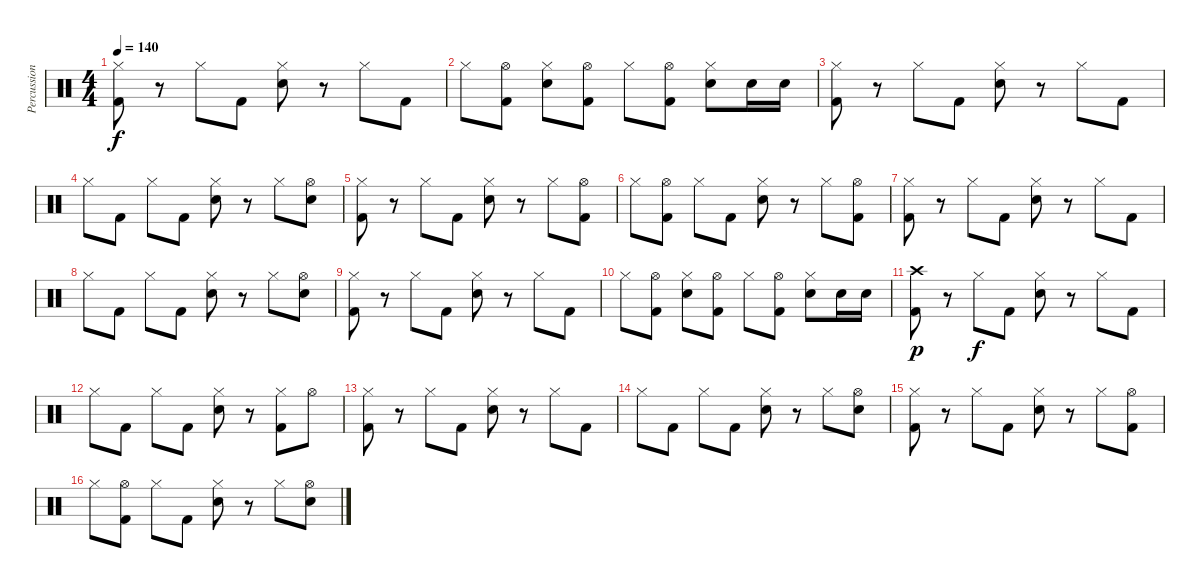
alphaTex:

\track ("Percussion" "Percussion") {instrument percussion}
\staff {score}
\articulation defaults
\ts (4 4)
\tempo 140
\clef neutral
\ks c
("Hi-Hat (closed)" "Kick (hit) 2").8{dy f} r.8 "Hi-Hat (closed)".8 "Kick (hit) 2".8 ("Hi-Hat (closed)" "Snare (hit) 2").8 r.8 "Hi-Hat (closed)".8 "Kick (hit) 2".8 |
"Hi-Hat (closed)".8 ("Hi-Hat (open)" "Kick (hit) 2").8 ("Hi-Hat (closed)" "Snare (hit) 2").8 ("Hi-Hat (open)" "Kick (hit) 2").8 "Hi-Hat (closed)".8 ("Hi-Hat (open)" "Kick (hit) 2").8 ("Hi-Hat (closed)" "Snare (hit) 2").8 "Snare (hit) 2".16 "Snare (hit) 2".16 |
("Hi-Hat (closed)" "Kick (hit) 2").8 r.8 "Hi-Hat (closed)".8 "Kick (hit) 2".8 ("Hi-Hat (closed)" "Snare (hit) 2").8 r.8 "Hi-Hat (closed)".8 "Kick (hit) 2".8 |
"Hi-Hat (closed)".8 "Kick (hit) 2".8 "Hi-Hat (closed)".8 "Kick (hit) 2".8 ("Hi-Hat (closed)" "Snare (hit) 2").8 r.8 "Hi-Hat (closed)".8 ("Hi-Hat (open)" "Snare (hit) 2").8 |
("Hi-Hat (closed)" "Kick (hit) 2").8 r.8 "Hi-Hat (closed)".8 "Kick (hit) 2".8 ("Hi-Hat (closed)" "Snare (hit) 2").8 r.8 "Hi-Hat (closed)".8 ("Hi-Hat (open)" "Kick (hit) 2").8 |
"Hi-Hat (closed)".8 ("Hi-Hat (open)" "Kick (hit) 2").8 "Hi-Hat (closed)".8 "Kick (hit) 2".8 ("Hi-Hat (closed)" "Snare (hit) 2").8 r.8 "Hi-Hat (closed)".8 ("Hi-Hat (open)" "Kick (hit) 2").8 |
("Hi-Hat (closed)" "Kick (hit) 2").8 r.8 "Hi-Hat (closed)".8 "Kick (hit) 2".8 ("Hi-Hat (closed)" "Snare (hit) 2").8 r.8 "Hi-Hat (closed)".8 "Kick (hit) 2".8 |
"Hi-Hat (closed)".8 "Kick (hit) 2".8 "Hi-Hat (closed)".8 "Kick (hit) 2".8 ("Hi-Hat (closed)" "Snare (hit) 2").8 r.8 "Hi-Hat (closed)".8 ("Hi-Hat (open)" "Snare (hit) 2").8 |
("Hi-Hat (closed)" "Kick (hit) 2").8 r.8 "Hi-Hat (closed)".8 "Kick (hit) 2".8 ("Hi-Hat (closed)" "Snare (hit) 2").8 r.8 "Hi-Hat (closed)".8 "Kick (hit) 2".8 |
"Hi-Hat (closed)".8 ("Hi-Hat (open)" "Kick (hit) 2").8 ("Hi-Hat (closed)" "Snare (hit) 2").8 ("Hi-Hat (open)" "Kick (hit) 2").8 "Hi-Hat (closed)".8 ("Hi-Hat (open)" "Kick (hit) 2").8 ("Hi-Hat (closed)" "Snare (hit) 2").8 "Snare (hit) 2".16 "Snare (hit) 2".16 |
("Crash high (hit)" "Kick (hit) 2").8{dy p} r.8 "Hi-Hat (closed)".8{dy f} "Kick (hit) 2".8 ("Hi-Hat (closed)" "Snare (hit) 2").8 r.8 "Hi-Hat (closed)".8 "Kick (hit) 2".8 |
"Hi-Hat (closed)".8 "Kick (hit) 2".8 "Hi-Hat (closed)".8 "Kick (hit) 2".8 ("Hi-Hat (closed)" "Snare (hit) 2").8 r.8 ("Hi-Hat (closed)" "Kick (hit) 2").8 "Hi-Hat (open)".8 |
("Hi-Hat (closed)" "Kick (hit) 2").8 r.8 "Hi-Hat (closed)".8 "Kick (hit) 2".8 ("Hi-Hat (closed)" "Snare (hit) 2").8 r.8 "Hi-Hat (closed)".8 "Kick (hit) 2".8 |
"Hi-Hat (closed)".8 "Kick (hit) 2".8 "Hi-Hat (closed)".8 "Kick (hit) 2".8 ("Hi-Hat (closed)" "Snare (hit) 2").8 r.8 "Hi-Hat (closed)".8 ("Hi-Hat (open)" "Snare (hit) 2").8 |
("Hi-Hat (closed)" "Kick (hit) 2").8 r.8 "Hi-Hat (closed)".8 "Kick (hit) 2".8 ("Hi-Hat (closed)" "Snare (hit) 2").8 r.8 "Hi-Hat (closed)".8 ("Hi-Hat (open)" "Kick (hit) 2").8 |
"Hi-Hat (closed)".8 ("Hi-Hat (open)" "Kick (hit) 2").8 "Hi-Hat (closed)".8 "Kick (hit) 2".8 ("Hi-Hat (closed)" "Snare (hit) 2").8 r.8 "Hi-Hat (closed)".8 ("Hi-Hat (open)" "Snare (hit) 2").8
